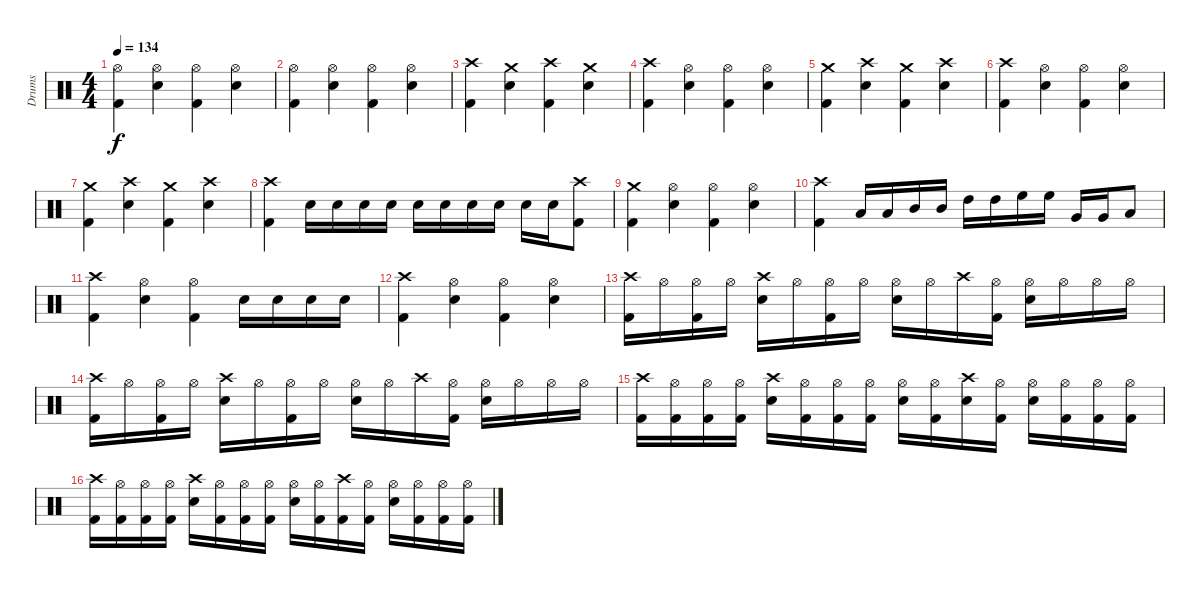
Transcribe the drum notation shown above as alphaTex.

\track ("Drums" "Drums") {instrument percussion}
\staff {score}
\articulation defaults
\ts (4 4)
\tempo 134
\clef neutral
\ks c
("Hi-Hat (open)" "Kick (hit) 2").4{dy f} ("Hi-Hat (open)" "Snare (hit) 2").4 ("Hi-Hat (open)" "Kick (hit) 2").4 ("Hi-Hat (open)" "Snare (hit) 2").4 |
("Hi-Hat (open)" "Kick (hit) 2").4 ("Hi-Hat (open)" "Snare (hit) 2").4 ("Hi-Hat (open)" "Kick (hit) 2").4 ("Hi-Hat (open)" "Snare (hit) 2").4 |
("Crash high (hit)" "Kick (hit) 2").4 ("Crash medium (hit)" "Snare (hit) 2").4 ("Crash high (hit)" "Kick (hit) 2").4 ("Crash medium (hit)" "Snare (hit) 2").4 |
("Crash high (hit)" "Kick (hit) 2").4 ("Hi-Hat (open)" "Snare (hit) 2").4 ("Hi-Hat (open)" "Kick (hit) 2").4 ("Hi-Hat (open)" "Snare (hit) 2").4 |
("Crash medium (hit)" "Kick (hit) 2").4 ("Crash high (hit)" "Snare (hit) 2").4 ("Crash medium (hit)" "Kick (hit) 2").4 ("Crash high (hit)" "Snare (hit) 2").4 |
("Crash high (hit)" "Kick (hit) 2").4 ("Hi-Hat (open)" "Snare (hit) 2").4 ("Hi-Hat (open)" "Kick (hit) 2").4 ("Hi-Hat (open)" "Snare (hit) 2").4 |
("Crash medium (hit)" "Kick (hit) 2").4 ("Crash high (hit)" "Snare (hit) 2").4 ("Crash medium (hit)" "Kick (hit) 2").4 ("Crash high (hit)" "Snare (hit) 2").4 |
("Crash high (hit)" "Kick (hit) 2").4 "Snare (hit) 2".16 "Snare (hit) 2".16 "Electric Snare (hit)".16 "Snare (hit) 2".16 "Electric Snare (hit)".16 "Snare (hit) 2".16 "Snare (hit) 2".16 "Electric Snare (hit)".16 "Snare (hit) 2".16 "Electric Snare (hit)".16 ("Crash high (hit)" "Kick (hit) 2").8 |
("Crash medium (hit)" "Kick (hit) 2").4 ("Hi-Hat (open)" "Snare (hit) 2").4 ("Hi-Hat (open)" "Kick (hit) 2").4 ("Hi-Hat (open)" "Snare (hit) 2").4 |
("Crash high (hit)" "Kick (hit) 2").4 "Low Tom (hit)".16 "Low Tom (hit)".16 "Mid Tom (hit)".16 "Mid Tom (hit)".16 "High Tom (hit)".16 "High Tom (hit)".16 "High Floor Tom (hit)".16 "High Floor Tom (hit)".16 "Very Low Tom (hit)".16 "Very Low Tom (hit)".16 "Low Floor Tom (hit)".8 |
("Crash high (hit)" "Kick (hit) 2").4 ("Hi-Hat (open)" "Snare (hit) 2").4 ("Hi-Hat (open)" "Kick (hit) 2").4 "Snare (hit) 2".16 "Snare (hit) 2".16 "Snare (hit) 2".16 "Snare (hit) 2".16 |
("Crash high (hit)" "Kick (hit) 2").4 ("Hi-Hat (open)" "Snare (hit) 2").4 ("Hi-Hat (open)" "Kick (hit) 2").4 ("Hi-Hat (open)" "Snare (hit) 2").4 |
("Crash high (hit)" "Kick (hit) 2").16 "Hi-Hat (open)".16 ("Hi-Hat (open)" "Kick (hit) 2").16 "Hi-Hat (open)".16 ("Crash high (hit)" "Snare (hit) 2").16 "Hi-Hat (open)".16 ("Hi-Hat (open)" "Kick (hit) 2").16 "Hi-Hat (open)".16 ("Hi-Hat (open)" "Snare (hit) 2").16 "Hi-Hat (open)".16 "Crash high (hit)".16 ("Hi-Hat (open)" "Kick (hit) 2").16 ("Hi-Hat (open)" "Snare (hit) 2").16 "Hi-Hat (open)".16 "Hi-Hat (open)".16 "Hi-Hat (open)".16 |
("Crash high (hit)" "Kick (hit) 2").16 "Hi-Hat (open)".16 ("Hi-Hat (open)" "Kick (hit) 2").16 "Hi-Hat (open)".16 ("Crash high (hit)" "Snare (hit) 2").16 "Hi-Hat (open)".16 ("Hi-Hat (open)" "Kick (hit) 2").16 "Hi-Hat (open)".16 ("Hi-Hat (open)" "Snare (hit) 2").16 "Hi-Hat (open)".16 "Crash high (hit)".16 ("Hi-Hat (open)" "Kick (hit) 2").16 ("Hi-Hat (open)" "Snare (hit) 2").16 "Hi-Hat (open)".16 "Hi-Hat (open)".16 "Hi-Hat (open)".16 |
("Crash high (hit)" "Kick (hit) 2").16 ("Hi-Hat (open)" "Kick (hit) 2").16 ("Hi-Hat (open)" "Kick (hit) 2").16 ("Hi-Hat (open)" "Kick (hit) 2").16 ("Crash high (hit)" "Snare (hit) 2").16 ("Hi-Hat (open)" "Kick (hit) 2").16 ("Hi-Hat (open)" "Kick (hit) 2").16 ("Hi-Hat (open)" "Kick (hit) 2").16 ("Hi-Hat (open)" "Snare (hit) 2").16 ("Hi-Hat (open)" "Kick (hit) 2").16 ("Crash high (hit)" "Snare (hit) 2").16 ("Hi-Hat (open)" "Kick (hit) 2").16 ("Hi-Hat (open)" "Snare (hit) 2").16 ("Hi-Hat (open)" "Kick (hit) 2").16 ("Hi-Hat (open)" "Kick (hit) 2").16 ("Hi-Hat (open)" "Kick (hit) 2").16 |
("Crash high (hit)" "Kick (hit) 2").16 ("Hi-Hat (open)" "Kick (hit) 2").16 ("Hi-Hat (open)" "Kick (hit) 2").16 ("Hi-Hat (open)" "Kick (hit) 2").16 ("Crash high (hit)" "Snare (hit) 2").16 ("Hi-Hat (open)" "Kick (hit) 2").16 ("Hi-Hat (open)" "Kick (hit) 2").16 ("Hi-Hat (open)" "Kick (hit) 2").16 ("Hi-Hat (open)" "Snare (hit) 2").16 ("Hi-Hat (open)" "Kick (hit) 2").16 ("Crash high (hit)" "Kick (hit) 2").16 ("Hi-Hat (open)" "Kick (hit) 2").16 ("Hi-Hat (open)" "Snare (hit) 2").16 ("Hi-Hat (open)" "Kick (hit) 2").16 ("Hi-Hat (open)" "Kick (hit) 2").16 ("Hi-Hat (open)" "Kick (hit) 2").16
